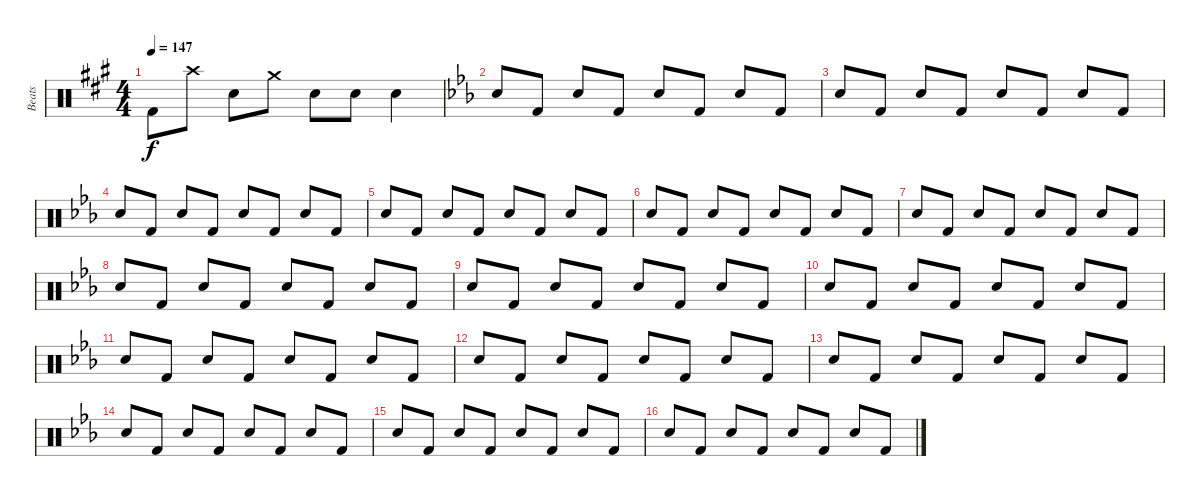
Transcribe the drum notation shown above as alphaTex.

\track ("Beats" "Beats") {instrument percussion}
\staff {score}
\articulation defaults
\ts (4 4)
\tempo 147
\clef neutral
\ks a "Kick (hit) 2".8{dy f} "Crash high (hit)".8 "Snare (hit) 2".8 "Crash medium (hit)".8 "Snare (hit) 2".8 "Snare (hit) 2".8 "Snare (hit) 2".4
|
\ks eb "Snare (hit) 2".8 "Kick (hit) 2".8 "Snare (hit) 2".8 "Kick (hit) 2".8 "Snare (hit) 2".8 "Kick (hit) 2".8 "Snare (hit) 2".8 "Kick (hit) 2".8
|
"Snare (hit) 2".8 "Kick (hit) 2".8 "Snare (hit) 2".8 "Kick (hit) 2".8 "Snare (hit) 2".8 "Kick (hit) 2".8 "Snare (hit) 2".8 "Kick (hit) 2".8 |
"Snare (hit) 2".8 "Kick (hit) 2".8 "Snare (hit) 2".8 "Kick (hit) 2".8 "Snare (hit) 2".8 "Kick (hit) 2".8 "Snare (hit) 2".8 "Kick (hit) 2".8 |
"Snare (hit) 2".8 "Kick (hit) 2".8 "Snare (hit) 2".8 "Kick (hit) 2".8 "Snare (hit) 2".8 "Kick (hit) 2".8 "Snare (hit) 2".8 "Kick (hit) 2".8 |
"Snare (hit) 2".8 "Kick (hit) 2".8 "Snare (hit) 2".8 "Kick (hit) 2".8 "Snare (hit) 2".8 "Kick (hit) 2".8 "Snare (hit) 2".8 "Kick (hit) 2".8 |
"Snare (hit) 2".8 "Kick (hit) 2".8 "Snare (hit) 2".8 "Kick (hit) 2".8 "Snare (hit) 2".8 "Kick (hit) 2".8 "Snare (hit) 2".8 "Kick (hit) 2".8 |
"Snare (hit) 2".8 "Kick (hit) 2".8 "Snare (hit) 2".8 "Kick (hit) 2".8 "Snare (hit) 2".8 "Kick (hit) 2".8 "Snare (hit) 2".8 "Kick (hit) 2".8 |
"Snare (hit) 2".8 "Kick (hit) 2".8 "Snare (hit) 2".8 "Kick (hit) 2".8 "Snare (hit) 2".8 "Kick (hit) 2".8 "Snare (hit) 2".8 "Kick (hit) 2".8 |
"Snare (hit) 2".8 "Kick (hit) 2".8 "Snare (hit) 2".8 "Kick (hit) 2".8 "Snare (hit) 2".8 "Kick (hit) 2".8 "Snare (hit) 2".8 "Kick (hit) 2".8 |
"Snare (hit) 2".8 "Kick (hit) 2".8 "Snare (hit) 2".8 "Kick (hit) 2".8 "Snare (hit) 2".8 "Kick (hit) 2".8 "Snare (hit) 2".8 "Kick (hit) 2".8 |
"Snare (hit) 2".8 "Kick (hit) 2".8 "Snare (hit) 2".8 "Kick (hit) 2".8 "Snare (hit) 2".8 "Kick (hit) 2".8 "Snare (hit) 2".8 "Kick (hit) 2".8 |
"Snare (hit) 2".8 "Kick (hit) 2".8 "Snare (hit) 2".8 "Kick (hit) 2".8 "Snare (hit) 2".8 "Kick (hit) 2".8 "Snare (hit) 2".8 "Kick (hit) 2".8 |
"Snare (hit) 2".8 "Kick (hit) 2".8 "Snare (hit) 2".8 "Kick (hit) 2".8 "Snare (hit) 2".8 "Kick (hit) 2".8 "Snare (hit) 2".8 "Kick (hit) 2".8 |
"Snare (hit) 2".8 "Kick (hit) 2".8 "Snare (hit) 2".8 "Kick (hit) 2".8 "Snare (hit) 2".8 "Kick (hit) 2".8 "Snare (hit) 2".8 "Kick (hit) 2".8 |
"Snare (hit) 2".8 "Kick (hit) 2".8 "Snare (hit) 2".8 "Kick (hit) 2".8 "Snare (hit) 2".8 "Kick (hit) 2".8 "Snare (hit) 2".8 "Kick (hit) 2".8
